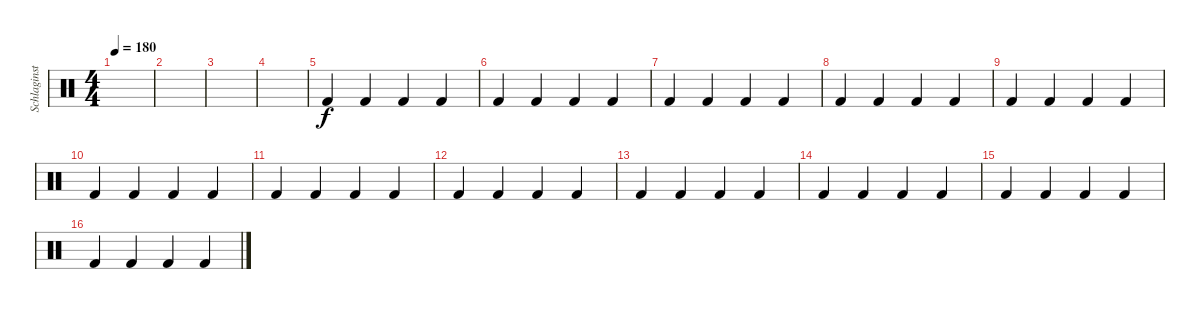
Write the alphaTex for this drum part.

\track ("Schlaginstrumente - Auswahl" "Schlaginst") {instrument percussion}
\staff {score}
\articulation defaults
\ts (4 4)
\tempo 180
\clef neutral
\ks c
|
|
|
|
"Kick (hit) 2".4 "Kick (hit) 2".4 "Kick (hit) 2".4 "Kick (hit) 2".4 |
"Kick (hit) 2".4 "Kick (hit) 2".4 "Kick (hit) 2".4 "Kick (hit) 2".4 |
"Kick (hit) 2".4 "Kick (hit) 2".4 "Kick (hit) 2".4 "Kick (hit) 2".4 |
"Kick (hit) 2".4 "Kick (hit) 2".4 "Kick (hit) 2".4 "Kick (hit) 2".4 |
"Kick (hit) 2".4 "Kick (hit) 2".4 "Kick (hit) 2".4 "Kick (hit) 2".4 |
"Kick (hit) 2".4 "Kick (hit) 2".4 "Kick (hit) 2".4 "Kick (hit) 2".4 |
"Kick (hit) 2".4 "Kick (hit) 2".4 "Kick (hit) 2".4 "Kick (hit) 2".4 |
"Kick (hit) 2".4 "Kick (hit) 2".4 "Kick (hit) 2".4 "Kick (hit) 2".4 |
"Kick (hit) 2".4 "Kick (hit) 2".4 "Kick (hit) 2".4 "Kick (hit) 2".4 |
"Kick (hit) 2".4 "Kick (hit) 2".4 "Kick (hit) 2".4 "Kick (hit) 2".4 |
"Kick (hit) 2".4 "Kick (hit) 2".4 "Kick (hit) 2".4 "Kick (hit) 2".4 |
"Kick (hit) 2".4 "Kick (hit) 2".4 "Kick (hit) 2".4 "Kick (hit) 2".4
